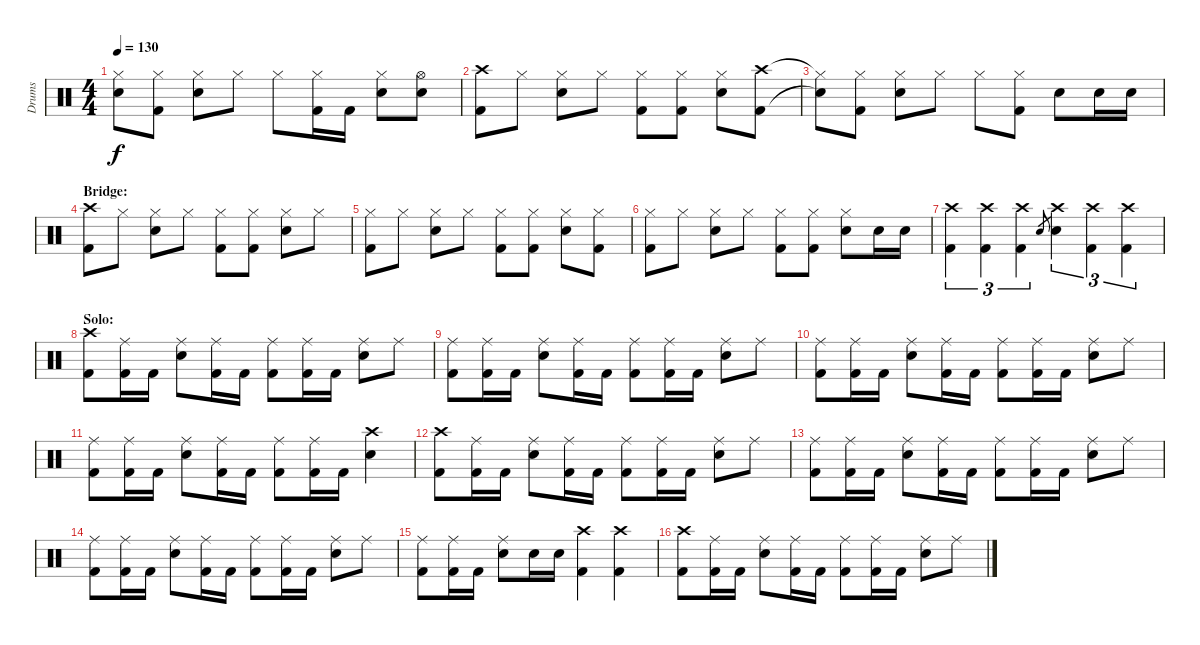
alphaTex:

\track ("Drums" "Drums") {instrument percussion}
\staff {score}
\articulation defaults
\ts (4 4)
\tempo 130
\clef neutral
\ks c
("Hi-Hat (closed)"{t} "Snare (hit)"{t}).8{dy f} ("Hi-Hat (closed)" "Kick (hit) 2").8 ("Hi-Hat (closed)" "Electric Snare (hit)").8 "Hi-Hat (closed)".8 "Hi-Hat (closed)".8 ("Hi-Hat (closed)" "Kick (hit) 2").16 "Kick (hit) 2".16 ("Hi-Hat (closed)" "Electric Snare (hit)").8 ("Hi-Hat (open)" "Electric Snare (hit)").8 |
("Crash high (hit)" "Kick (hit) 2").8 "Hi-Hat (closed)".8 ("Hi-Hat (closed)" "Electric Snare (hit)").8 "Hi-Hat (closed)".8 ("Hi-Hat (closed)" "Kick (hit) 2").8 ("Hi-Hat (closed)" "Kick (hit) 2").8 ("Hi-Hat (closed)" "Electric Snare (hit)").8 ("Crash high (hit)" "Kick (hit) 2").8 |
("Hi-Hat (closed)"{t} "Snare (hit)"{t}).8 ("Hi-Hat (closed)" "Kick (hit) 2").8 ("Hi-Hat (closed)" "Electric Snare (hit)").8 "Hi-Hat (closed)".8 "Hi-Hat (closed)".8 ("Hi-Hat (closed)" "Kick (hit) 2").8 "Electric Snare (hit)".8 "Electric Snare (hit)".16 "Electric Snare (hit)".16 |
\section ("" "Bridge:")
("Crash high (hit)" "Kick (hit) 2").8 "Hi-Hat (closed)".8 ("Hi-Hat (closed)" "Electric Snare (hit)").8 "Hi-Hat (closed)".8 ("Hi-Hat (closed)" "Kick (hit) 2").8 ("Hi-Hat (closed)" "Kick (hit) 2").8 ("Hi-Hat (closed)" "Electric Snare (hit)").8 "Hi-Hat (closed)".8 |
("Hi-Hat (closed)" "Kick (hit) 2").8 "Hi-Hat (closed)".8 ("Hi-Hat (closed)" "Electric Snare (hit)").8 "Hi-Hat (closed)".8 ("Hi-Hat (closed)" "Kick (hit) 2").8 ("Hi-Hat (closed)" "Kick (hit) 2").8 ("Hi-Hat (closed)" "Electric Snare (hit)").8 ("Hi-Hat (closed)" "Kick (hit) 2").8 |
("Hi-Hat (closed)" "Kick (hit) 2").8 "Hi-Hat (closed)".8 ("Hi-Hat (closed)" "Electric Snare (hit)").8 "Hi-Hat (closed)".8 ("Hi-Hat (closed)" "Kick (hit) 2").8 ("Hi-Hat (closed)" "Kick (hit) 2").8 ("Hi-Hat (closed)" "Electric Snare (hit)").8 "Electric Snare (hit)".16 "Electric Snare (hit)".16 |
("Crash high (hit)" "Kick (hit) 2").4{tu (3 2)} ("Crash high (hit)" "Kick (hit) 2").4{tu (3 2)} ("Crash high (hit)" "Kick (hit) 2").4{tu (3 2)} "Electric Snare (hit)".8{gr} ("Crash high (hit)" "Electric Snare (hit)").4{tu (3 2)} ("Crash high (hit)" "Kick (hit) 2").4{tu (3 2)} ("Crash high (hit)" "Kick (hit) 2").4{tu (3 2)} |
\section ("" "Solo:")
("Crash high (hit)" "Kick (hit) 2").8 ("Ride (middle)" "Kick (hit) 2").16 "Kick (hit) 2".16 ("Ride (middle)" "Electric Snare (hit)").8 ("Ride (middle)" "Kick (hit) 2").16 "Kick (hit) 2".16 ("Ride (middle)" "Kick (hit) 2").8 ("Ride (middle)" "Kick (hit) 2").16 "Kick (hit) 2".16 ("Ride (middle)" "Electric Snare (hit)").8 "Ride (middle)".8 |
("Ride (middle)" "Kick (hit) 2").8 ("Ride (middle)" "Kick (hit) 2").16 "Kick (hit) 2".16 ("Ride (middle)" "Electric Snare (hit)").8 ("Ride (middle)" "Kick (hit) 2").16 "Kick (hit) 2".16 ("Ride (middle)" "Kick (hit) 2").8 ("Ride (middle)" "Kick (hit) 2").16 "Kick (hit) 2".16 ("Ride (middle)" "Electric Snare (hit)").8 "Ride (middle)".8 |
("Ride (middle)" "Kick (hit) 2").8 ("Ride (middle)" "Kick (hit) 2").16 "Kick (hit) 2".16 ("Ride (middle)" "Electric Snare (hit)").8 ("Ride (middle)" "Kick (hit) 2").16 "Kick (hit) 2".16 ("Ride (middle)" "Kick (hit) 2").8 ("Ride (middle)" "Kick (hit) 2").16 "Kick (hit) 2".16 ("Ride (middle)" "Electric Snare (hit)").8 "Ride (middle)".8 |
("Ride (middle)" "Kick (hit) 2").8 ("Ride (middle)" "Kick (hit) 2").16 "Kick (hit) 2".16 ("Ride (middle)" "Electric Snare (hit)").8 ("Ride (middle)" "Kick (hit) 2").16 "Kick (hit) 2".16 ("Ride (middle)" "Kick (hit) 2").8 ("Ride (middle)" "Kick (hit) 2").16 "Kick (hit) 2".16 ("Crash high (hit)" "Electric Snare (hit)").4 |
("Crash high (hit)" "Kick (hit) 2").8 ("Ride (middle)" "Kick (hit) 2").16 "Kick (hit) 2".16 ("Ride (middle)" "Electric Snare (hit)").8 ("Ride (middle)" "Kick (hit) 2").16 "Kick (hit) 2".16 ("Ride (middle)" "Kick (hit) 2").8 ("Ride (middle)" "Kick (hit) 2").16 "Kick (hit) 2".16 ("Ride (middle)" "Electric Snare (hit)").8 "Ride (middle)".8 |
("Ride (middle)" "Kick (hit) 2").8 ("Ride (middle)" "Kick (hit) 2").16 "Kick (hit) 2".16 ("Ride (middle)" "Electric Snare (hit)").8 ("Ride (middle)" "Kick (hit) 2").16 "Kick (hit) 2".16 ("Ride (middle)" "Kick (hit) 2").8 ("Ride (middle)" "Kick (hit) 2").16 "Kick (hit) 2".16 ("Ride (middle)" "Electric Snare (hit)").8 "Ride (middle)".8 |
("Ride (middle)" "Kick (hit) 2").8 ("Ride (middle)" "Kick (hit) 2").16 "Kick (hit) 2".16 ("Ride (middle)" "Electric Snare (hit)").8 ("Ride (middle)" "Kick (hit) 2").16 "Kick (hit) 2".16 ("Ride (middle)" "Kick (hit) 2").8 ("Ride (middle)" "Kick (hit) 2").16 "Kick (hit) 2".16 ("Ride (middle)" "Electric Snare (hit)").8 "Ride (middle)".8 |
("Ride (middle)" "Kick (hit) 2").8 ("Ride (middle)" "Kick (hit) 2").16 "Kick (hit) 2".16 ("Ride (middle)" "Electric Snare (hit)").8 "Electric Snare (hit)".16 "Electric Snare (hit)".16 ("Crash high (hit)" "Kick (hit) 2").4 ("Crash high (hit)" "Kick (hit) 2").4 |
("Crash high (hit)" "Kick (hit) 2").8 ("Ride (middle)" "Kick (hit) 2").16 "Kick (hit) 2".16 ("Ride (middle)" "Electric Snare (hit)").8 ("Ride (middle)" "Kick (hit) 2").16 "Kick (hit) 2".16 ("Ride (middle)" "Kick (hit) 2").8 ("Ride (middle)" "Kick (hit) 2").16 "Kick (hit) 2".16 ("Ride (middle)" "Electric Snare (hit)").8 "Ride (middle)".8
